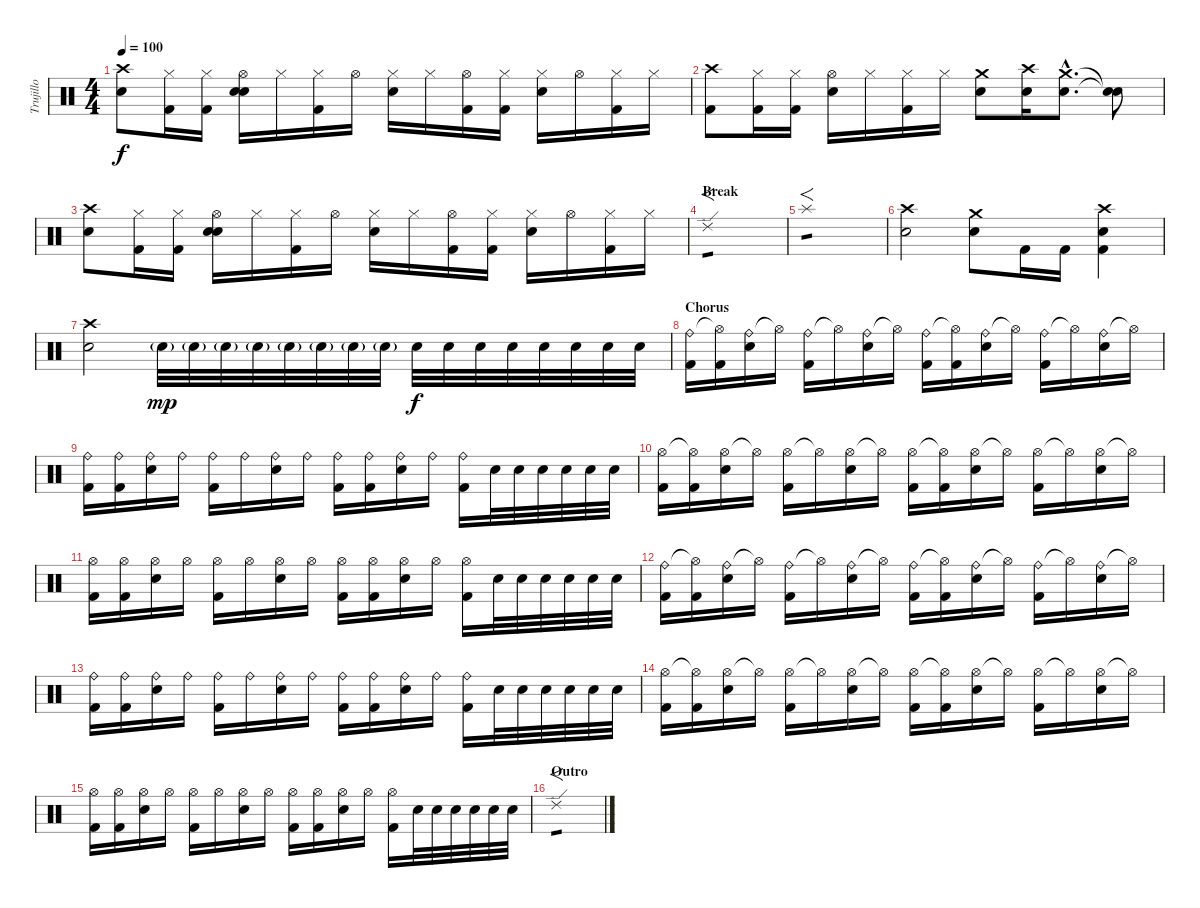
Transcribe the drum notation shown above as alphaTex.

\track ("Trujillo" "Trujillo") {instrument percussion}
\staff {score}
\articulation defaults
\ts (4 4)
\tempo 100
\clef neutral
\ks c
("Crash high (hit)" "Electric Snare (hit)").8{dy f} ("Hi-Hat (closed)" "Kick (hit) 2").16 ("Hi-Hat (closed)" "Kick (hit) 2").16 ("Hi-Hat (open)" "Electric Snare (hit)" "Electric Snare (hit)").16 "Hi-Hat (closed)".16 ("Hi-Hat (closed)" "Kick (hit) 2").16 "Hi-Hat (open)".16 ("Hi-Hat (closed)" "Electric Snare (hit)").16 "Hi-Hat (closed)".16 ("Hi-Hat (open)" "Kick (hit) 2").16 ("Hi-Hat (closed)" "Kick (hit) 2").16 ("Hi-Hat (closed)" "Electric Snare (hit)").16 "Hi-Hat (open)".16 ("Hi-Hat (closed)" "Kick (hit) 2").16 "Hi-Hat (closed)".16 |
("Crash high (hit)" "Kick (hit) 2").8 ("Hi-Hat (closed)" "Kick (hit) 2").16 ("Hi-Hat (closed)" "Kick (hit) 2").16 ("Hi-Hat (open)" "Electric Snare (hit)").16 "Hi-Hat (closed)".16 ("Hi-Hat (closed)" "Kick (hit) 2").16 "Hi-Hat (closed)".16 ("Crash medium (hit)" "Electric Snare (hit)").8 ("Crash high (hit)" "Snare (hit) 2").16 ("Crash medium (hit)"{hac} "Electric Snare (hit)"{hac}).8{d} ("Snare (hit)"{t} "Snare (hit)"{t}).8 |
("Crash high (hit)" "Electric Snare (hit)").8 ("Hi-Hat (closed)" "Kick (hit) 2").16 ("Hi-Hat (closed)" "Kick (hit) 2").16 ("Hi-Hat (open)" "Electric Snare (hit)" "Electric Snare (hit)").16 "Hi-Hat (closed)".16 ("Hi-Hat (closed)" "Kick (hit) 2").16 "Hi-Hat (open)".16 ("Hi-Hat (closed)" "Electric Snare (hit)").16 "Hi-Hat (closed)".16 ("Hi-Hat (open)" "Kick (hit) 2").16 ("Hi-Hat (closed)" "Kick (hit) 2").16 ("Hi-Hat (closed)" "Electric Snare (hit)").16 "Hi-Hat (open)".16 ("Hi-Hat (closed)" "Kick (hit) 2").16 "Hi-Hat (closed)".16 |
\section ("" "Break")
"Ride (edge) 2".1{f tp 1} |
"Splash (hit)".1{f tp 1} |
("Crash high (hit)" "Electric Snare (hit)").2 ("Crash medium (hit)" "Electric Snare (hit)").8 "Kick (hit) 2".16 "Kick (hit) 2".16 ("Crash high (hit)" "Electric Snare (hit)" "Kick (hit) 2").4 |
("Crash high (hit)" "Electric Snare (hit)").2 "Electric Snare (hit)"{g}.32{dy mp} "Electric Snare (hit)"{g}.32 "Electric Snare (hit)"{g}.32 "Electric Snare (hit)"{g}.32 "Electric Snare (hit)"{g}.32 "Electric Snare (hit)"{g}.32 "Electric Snare (hit)"{g}.32 "Electric Snare (hit)"{g}.32 "Electric Snare (hit)".32{dy f} "Electric Snare (hit)".32 "Electric Snare (hit)".32 "Electric Snare (hit)".32 "Electric Snare (hit)".32 "Electric Snare (hit)".32 "Electric Snare (hit)".32 "Electric Snare (hit)".32 |
\section ("" "Chorus")
("Ride (bell)" "Kick (hit) 2").16 ("Hi-Hat (open)"{t} "Kick (hit) 2").16 ("Ride (bell)" "Electric Snare (hit)").16 "Hi-Hat (open)"{t}.16 ("Ride (bell)" "Kick (hit) 2").16 "Hi-Hat (open)"{t}.16 ("Ride (bell)" "Electric Snare (hit)").16 "Hi-Hat (open)"{t}.16 ("Ride (bell)" "Kick (hit) 2").16 ("Hi-Hat (open)"{t} "Kick (hit) 2").16 ("Ride (bell)" "Electric Snare (hit)").16 "Hi-Hat (open)"{t}.16 ("Ride (bell)" "Kick (hit) 2").16 "Hi-Hat (open)"{t}.16 ("Ride (bell)" "Electric Snare (hit)").16 "Hi-Hat (open)"{t}.16 |
("Ride (bell)" "Kick (hit) 2").16 ("Ride (bell)" "Kick (hit) 2").16 ("Ride (bell)" "Electric Snare (hit)").16 "Ride (bell)".16 ("Ride (bell)" "Kick (hit) 2").16 "Ride (bell)".16 ("Ride (bell)" "Electric Snare (hit)").16 "Ride (bell)".16 ("Ride (bell)" "Kick (hit) 2").16 ("Ride (bell)" "Kick (hit) 2").16 ("Ride (bell)" "Electric Snare (hit)").16 "Ride (bell)".16 ("Ride (bell)" "Kick (hit) 2").16 "Electric Snare (hit)".32 "Electric Snare (hit)".32 "Electric Snare (hit)".32 "Electric Snare (hit)".32 "Electric Snare (hit)".32 "Electric Snare (hit)".32 |
("Hi-Hat (open)" "Kick (hit) 2").16 ("Hi-Hat (open)"{t} "Kick (hit) 2").16 ("Hi-Hat (open)" "Electric Snare (hit)").16 "Hi-Hat (open)"{t}.16 ("Hi-Hat (open)" "Kick (hit) 2").16 "Hi-Hat (open)"{t}.16 ("Hi-Hat (open)" "Electric Snare (hit)").16 "Hi-Hat (open)"{t}.16 ("Hi-Hat (open)" "Kick (hit) 2").16 ("Hi-Hat (open)"{t} "Kick (hit) 2").16 ("Hi-Hat (open)" "Electric Snare (hit)").16 "Hi-Hat (open)"{t}.16 ("Hi-Hat (open)" "Kick (hit) 2").16 "Hi-Hat (open)"{t}.16 ("Hi-Hat (open)" "Electric Snare (hit)").16 "Hi-Hat (open)"{t}.16 |
("Hi-Hat (open)" "Kick (hit) 2").16 ("Hi-Hat (open)" "Kick (hit) 2").16 ("Hi-Hat (open)" "Electric Snare (hit)").16 "Hi-Hat (open)".16 ("Hi-Hat (open)" "Kick (hit) 2").16 "Hi-Hat (open)".16 ("Hi-Hat (open)" "Electric Snare (hit)").16 "Hi-Hat (open)".16 ("Hi-Hat (open)" "Kick (hit) 2").16 ("Hi-Hat (open)" "Kick (hit) 2").16 ("Hi-Hat (open)" "Electric Snare (hit)").16 "Hi-Hat (open)".16 ("Hi-Hat (open)" "Kick (hit) 2").16 "Electric Snare (hit)".32 "Electric Snare (hit)".32 "Electric Snare (hit)".32 "Electric Snare (hit)".32 "Electric Snare (hit)".32 "Electric Snare (hit)".32 |
("Ride (bell)" "Kick (hit) 2").16 ("Hi-Hat (open)"{t} "Kick (hit) 2").16 ("Ride (bell)" "Electric Snare (hit)").16 "Hi-Hat (open)"{t}.16 ("Ride (bell)" "Kick (hit) 2").16 "Hi-Hat (open)"{t}.16 ("Ride (bell)" "Electric Snare (hit)").16 "Hi-Hat (open)"{t}.16 ("Ride (bell)" "Kick (hit) 2").16 ("Hi-Hat (open)"{t} "Kick (hit) 2").16 ("Ride (bell)" "Electric Snare (hit)").16 "Hi-Hat (open)"{t}.16 ("Ride (bell)" "Kick (hit) 2").16 "Hi-Hat (open)"{t}.16 ("Ride (bell)" "Electric Snare (hit)").16 "Hi-Hat (open)"{t}.16 |
("Ride (bell)" "Kick (hit) 2").16 ("Ride (bell)" "Kick (hit) 2").16 ("Ride (bell)" "Electric Snare (hit)").16 "Ride (bell)".16 ("Ride (bell)" "Kick (hit) 2").16 "Ride (bell)".16 ("Ride (bell)" "Electric Snare (hit)").16 "Ride (bell)".16 ("Ride (bell)" "Kick (hit) 2").16 ("Ride (bell)" "Kick (hit) 2").16 ("Ride (bell)" "Electric Snare (hit)").16 "Ride (bell)".16 ("Ride (bell)" "Kick (hit) 2").16 "Electric Snare (hit)".32 "Electric Snare (hit)".32 "Electric Snare (hit)".32 "Electric Snare (hit)".32 "Electric Snare (hit)".32 "Electric Snare (hit)".32 |
("Hi-Hat (open)" "Kick (hit) 2").16 ("Hi-Hat (open)"{t} "Kick (hit) 2").16 ("Hi-Hat (open)" "Electric Snare (hit)").16 "Hi-Hat (open)"{t}.16 ("Hi-Hat (open)" "Kick (hit) 2").16 "Hi-Hat (open)"{t}.16 ("Hi-Hat (open)" "Electric Snare (hit)").16 "Hi-Hat (open)"{t}.16 ("Hi-Hat (open)" "Kick (hit) 2").16 ("Hi-Hat (open)"{t} "Kick (hit) 2").16 ("Hi-Hat (open)" "Electric Snare (hit)").16 "Hi-Hat (open)"{t}.16 ("Hi-Hat (open)" "Kick (hit) 2").16 "Hi-Hat (open)"{t}.16 ("Hi-Hat (open)" "Electric Snare (hit)").16 "Hi-Hat (open)"{t}.16 |
("Hi-Hat (open)" "Kick (hit) 2").16 ("Hi-Hat (open)" "Kick (hit) 2").16 ("Hi-Hat (open)" "Electric Snare (hit)").16 "Hi-Hat (open)".16 ("Hi-Hat (open)" "Kick (hit) 2").16 "Hi-Hat (open)".16 ("Hi-Hat (open)" "Electric Snare (hit)").16 "Hi-Hat (open)".16 ("Hi-Hat (open)" "Kick (hit) 2").16 ("Hi-Hat (open)" "Kick (hit) 2").16 ("Hi-Hat (open)" "Electric Snare (hit)").16 "Hi-Hat (open)".16 ("Hi-Hat (open)" "Kick (hit) 2").16 "Electric Snare (hit)".32 "Electric Snare (hit)".32 "Electric Snare (hit)".32 "Electric Snare (hit)".32 "Electric Snare (hit)".32 "Electric Snare (hit)".32 |
\section ("" "Outro")
"Ride (edge) 2".1{f tp 1}
